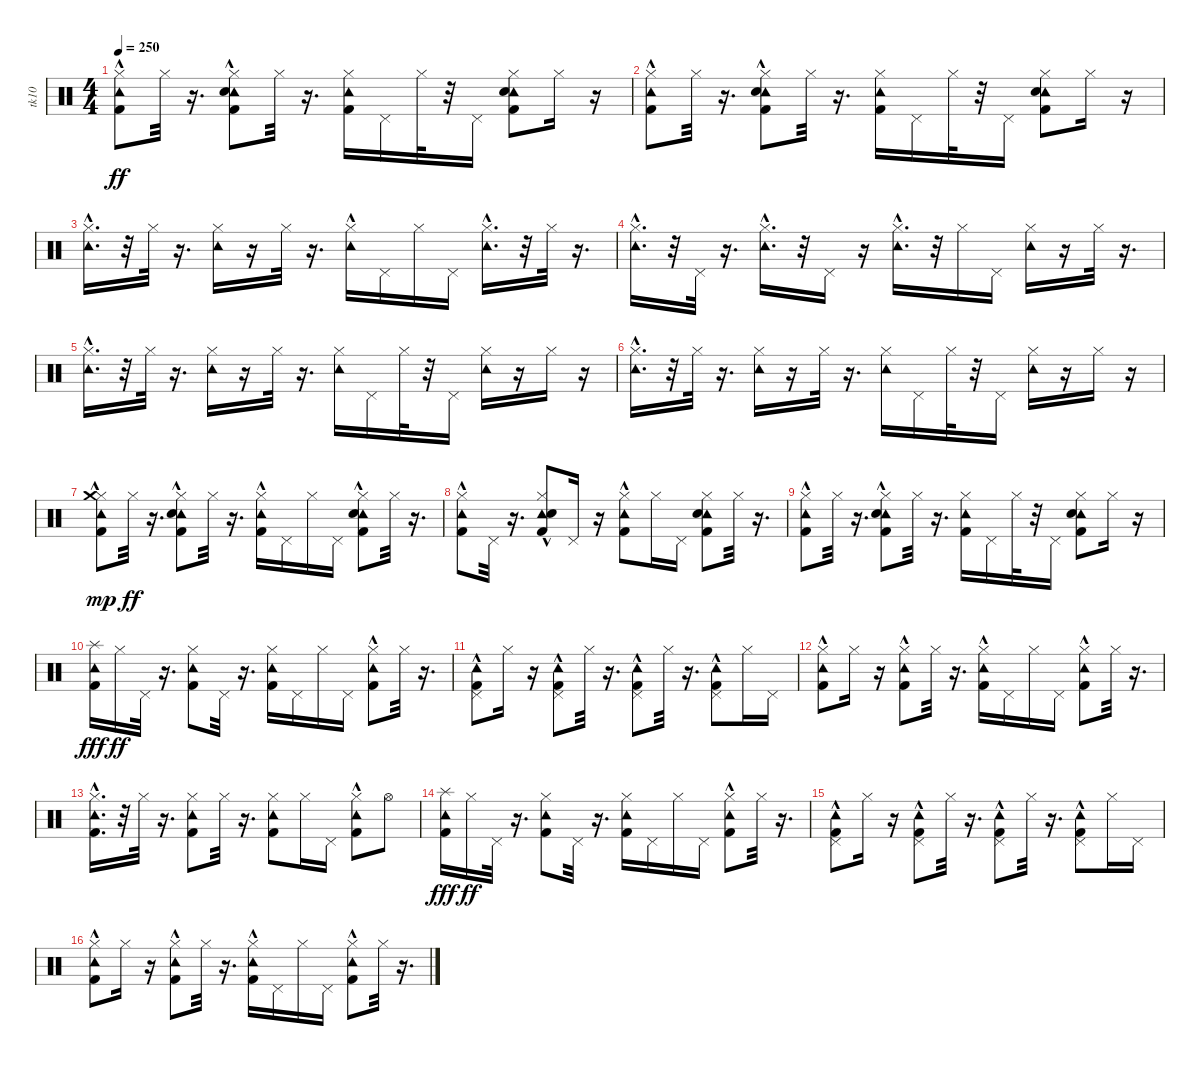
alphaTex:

\track ("tk10" "tk10") {instrument percussion}
\staff {score}
\articulation defaults
\ts (4 4)
\tempo 250
\clef neutral
\ks c
("Kick (hit) 2" "Tambourine (hit)"{hac} "Hi-Hat (closed)").8{dy ff} "Hi-Hat (closed)".32 r.16{d} ("Kick (hit) 2"{hac} "Tambourine (hit)" "Hi-Hat (closed)" "Electric Snare (hit)"{hac}).8 "Hi-Hat (closed)".32 r.16{d} ("Kick (hit) 2" "Tambourine (hit)" "Hi-Hat (closed)").16 "Pedal Hi-Hat (hit)".16 "Hi-Hat (closed)".32 r.32 "Pedal Hi-Hat (hit)".16 ("Kick (hit) 2" "Tambourine (hit)" "Hi-Hat (closed)" "Electric Snare (hit)").8 "Hi-Hat (closed)".16 r.16 |
("Kick (hit) 2" "Tambourine (hit)"{hac} "Hi-Hat (closed)").8 "Hi-Hat (closed)".32 r.16{d} ("Kick (hit) 2"{hac} "Tambourine (hit)" "Hi-Hat (closed)" "Electric Snare (hit)"{hac}).8 "Hi-Hat (closed)".32 r.16{d} ("Kick (hit) 2" "Tambourine (hit)" "Hi-Hat (closed)").16 "Pedal Hi-Hat (hit)".16 "Hi-Hat (closed)".32 r.32 "Pedal Hi-Hat (hit)".16 ("Kick (hit) 2" "Tambourine (hit)" "Hi-Hat (closed)" "Electric Snare (hit)").8 "Hi-Hat (closed)".16 r.16 |
("Tambourine (hit)"{hac} "Hi-Hat (closed)").16{d} r.32 "Hi-Hat (closed)".32 r.16{d} ("Tambourine (hit)" "Hi-Hat (closed)").16 r.16 "Hi-Hat (closed)".32 r.16{d} ("Tambourine (hit)"{hac} "Hi-Hat (closed)").16 "Pedal Hi-Hat (hit)".16 "Hi-Hat (closed)".16 "Pedal Hi-Hat (hit)".16 ("Tambourine (hit)"{hac} "Hi-Hat (closed)").16{d} r.32 "Hi-Hat (closed)".32 r.16{d} |
("Tambourine (hit)"{hac} "Hi-Hat (closed)").16{d} r.32 "Pedal Hi-Hat (hit)".32 r.16{d} ("Tambourine (hit)"{hac} "Hi-Hat (closed)").16{d} r.32 "Pedal Hi-Hat (hit)".16 r.16 ("Tambourine (hit)"{hac} "Hi-Hat (closed)").16{d} r.32 "Hi-Hat (closed)".16 "Pedal Hi-Hat (hit)".16 ("Tambourine (hit)" "Hi-Hat (closed)").16 r.16 "Hi-Hat (closed)".32 r.16{d} |
("Tambourine (hit)"{hac} "Hi-Hat (closed)").16{d} r.32 "Hi-Hat (closed)".32 r.16{d} ("Tambourine (hit)" "Hi-Hat (closed)").16 r.16 "Hi-Hat (closed)".32 r.16{d} ("Tambourine (hit)" "Hi-Hat (closed)").16 "Pedal Hi-Hat (hit)".16 "Hi-Hat (closed)".32 r.32 "Pedal Hi-Hat (hit)".16 ("Tambourine (hit)" "Hi-Hat (closed)").16 r.16 "Hi-Hat (closed)".16 r.16 |
("Tambourine (hit)"{hac} "Hi-Hat (closed)").16{d} r.32 "Hi-Hat (closed)".32 r.16{d} ("Tambourine (hit)" "Hi-Hat (closed)").16 r.16 "Hi-Hat (closed)".32 r.16{d} ("Tambourine (hit)" "Hi-Hat (closed)").16 "Pedal Hi-Hat (hit)".16 "Hi-Hat (closed)".32 r.32 "Pedal Hi-Hat (hit)".16 ("Tambourine (hit)" "Hi-Hat (closed)").16 r.16 "Hi-Hat (closed)".16 r.16 |
("Kick (hit) 2" "Tambourine (hit)"{hac} "Hi-Hat (closed)" "Crash medium (hit)").8{dy mp} "Hi-Hat (closed)".32{dy ff} r.16{d} ("Kick (hit) 2" "Tambourine (hit)" "Hi-Hat (closed)" "Electric Snare (hit)"{hac}).8 "Hi-Hat (closed)".32 r.16{d} ("Kick (hit) 2" "Tambourine (hit)"{hac} "Hi-Hat (closed)").16 "Pedal Hi-Hat (hit)".16 "Hi-Hat (closed)".16 "Pedal Hi-Hat (hit)".16 ("Kick (hit) 2"{hac} "Tambourine (hit)"{hac} "Hi-Hat (closed)" "Electric Snare (hit)"{hac}).8 "Hi-Hat (closed)".32 r.16{d} |
("Kick (hit) 2" "Tambourine (hit)"{hac} "Hi-Hat (closed)").8 "Pedal Hi-Hat (hit)".32 r.16{d} ("Kick (hit) 2" "Tambourine (hit)"{hac} "Hi-Hat (closed)" "Electric Snare (hit)"{hac}).8 "Pedal Hi-Hat (hit)".16 r.16 ("Kick (hit) 2" "Tambourine (hit)"{hac} "Hi-Hat (closed)").8 "Hi-Hat (closed)".16 "Pedal Hi-Hat (hit)".16 ("Kick (hit) 2" "Tambourine (hit)" "Hi-Hat (closed)" "Electric Snare (hit)").8 "Hi-Hat (closed)".32 r.16{d} |
("Kick (hit) 2" "Tambourine (hit)"{hac} "Hi-Hat (closed)").8 "Hi-Hat (closed)".32 r.16{d} ("Kick (hit) 2"{hac} "Tambourine (hit)" "Hi-Hat (closed)" "Electric Snare (hit)"{hac}).8 "Hi-Hat (closed)".32 r.16{d} ("Kick (hit) 2" "Tambourine (hit)" "Hi-Hat (closed)").16 "Pedal Hi-Hat (hit)".16 "Hi-Hat (closed)".32 r.32 "Pedal Hi-Hat (hit)".16 ("Kick (hit) 2" "Tambourine (hit)" "Hi-Hat (closed)" "Electric Snare (hit)").8 "Hi-Hat (closed)".16 r.16 |
("Kick (hit) 2" "Tambourine (hit)" "Splash (hit)").16{dy fff} "Hi-Hat (closed)".16{dy ff} "Pedal Hi-Hat (hit)".32 r.16{d} ("Kick (hit) 2" "Tambourine (hit)" "Hi-Hat (closed)").8 "Pedal Hi-Hat (hit)".32 r.16{d} ("Kick (hit) 2" "Tambourine (hit)" "Hi-Hat (closed)").16 "Pedal Hi-Hat (hit)".16 "Hi-Hat (closed)".16 "Pedal Hi-Hat (hit)".16 ("Kick (hit) 2" "Tambourine (hit)"{hac} "Hi-Hat (closed)").8 "Hi-Hat (closed)".32 r.16{d} |
("Kick (hit) 2" "Tambourine (hit)"{hac} "Pedal Hi-Hat (hit)").8 "Hi-Hat (closed)".16 r.16 ("Kick (hit) 2" "Tambourine (hit)"{hac} "Pedal Hi-Hat (hit)").8 "Hi-Hat (closed)".32 r.16{d} ("Kick (hit) 2" "Tambourine (hit)"{hac} "Pedal Hi-Hat (hit)").8 "Hi-Hat (closed)".32 r.16{d} ("Kick (hit) 2" "Tambourine (hit)"{hac} "Pedal Hi-Hat (hit)").8 "Hi-Hat (closed)".16 "Pedal Hi-Hat (hit)".16 |
("Kick (hit) 2" "Tambourine (hit)"{hac} "Hi-Hat (closed)").8 "Hi-Hat (closed)".16 r.16 ("Kick (hit) 2" "Tambourine (hit)"{hac} "Hi-Hat (closed)").8 "Hi-Hat (closed)".32 r.16{d} ("Kick (hit) 2" "Tambourine (hit)"{hac} "Hi-Hat (closed)").16 "Pedal Hi-Hat (hit)".16 "Hi-Hat (closed)".16 "Pedal Hi-Hat (hit)".16 ("Kick (hit) 2" "Tambourine (hit)"{hac} "Hi-Hat (closed)").8 "Hi-Hat (closed)".32 r.16{d} |
("Kick (hit) 2"{hac} "Tambourine (hit)"{hac} "Hi-Hat (closed)").16{d} r.32 "Hi-Hat (closed)".32 r.16{d} ("Kick (hit) 2" "Tambourine (hit)" "Hi-Hat (closed)").8 "Hi-Hat (closed)".32 r.16{d} ("Kick (hit) 2" "Tambourine (hit)" "Hi-Hat (closed)").8 "Hi-Hat (closed)".16 "Pedal Hi-Hat (hit)".16 ("Kick (hit) 2" "Tambourine (hit)"{hac} "Hi-Hat (closed)").8 "Hi-Hat (open)".8 |
("Kick (hit) 2" "Tambourine (hit)" "Splash (hit)").16{dy fff} "Hi-Hat (closed)".16{dy ff} "Pedal Hi-Hat (hit)".32 r.16{d} ("Kick (hit) 2" "Tambourine (hit)" "Hi-Hat (closed)").8 "Pedal Hi-Hat (hit)".32 r.16{d} ("Kick (hit) 2" "Tambourine (hit)" "Hi-Hat (closed)").16 "Pedal Hi-Hat (hit)".16 "Hi-Hat (closed)".16 "Pedal Hi-Hat (hit)".16 ("Kick (hit) 2" "Tambourine (hit)"{hac} "Hi-Hat (closed)").8 "Hi-Hat (closed)".32 r.16{d} |
("Kick (hit) 2" "Tambourine (hit)"{hac} "Pedal Hi-Hat (hit)").8 "Hi-Hat (closed)".16 r.16 ("Kick (hit) 2" "Tambourine (hit)"{hac} "Pedal Hi-Hat (hit)").8 "Hi-Hat (closed)".32 r.16{d} ("Kick (hit) 2" "Tambourine (hit)"{hac} "Pedal Hi-Hat (hit)").8 "Hi-Hat (closed)".32 r.16{d} ("Kick (hit) 2" "Tambourine (hit)"{hac} "Pedal Hi-Hat (hit)").8 "Hi-Hat (closed)".16 "Pedal Hi-Hat (hit)".16 |
("Kick (hit) 2" "Tambourine (hit)"{hac} "Hi-Hat (closed)").8 "Hi-Hat (closed)".16 r.16 ("Kick (hit) 2" "Tambourine (hit)"{hac} "Hi-Hat (closed)").8 "Hi-Hat (closed)".32 r.16{d} ("Kick (hit) 2" "Tambourine (hit)"{hac} "Hi-Hat (closed)").16 "Pedal Hi-Hat (hit)".16 "Hi-Hat (closed)".16 "Pedal Hi-Hat (hit)".16 ("Kick (hit) 2" "Tambourine (hit)"{hac} "Hi-Hat (closed)").8 "Hi-Hat (closed)".32 r.16{d}
